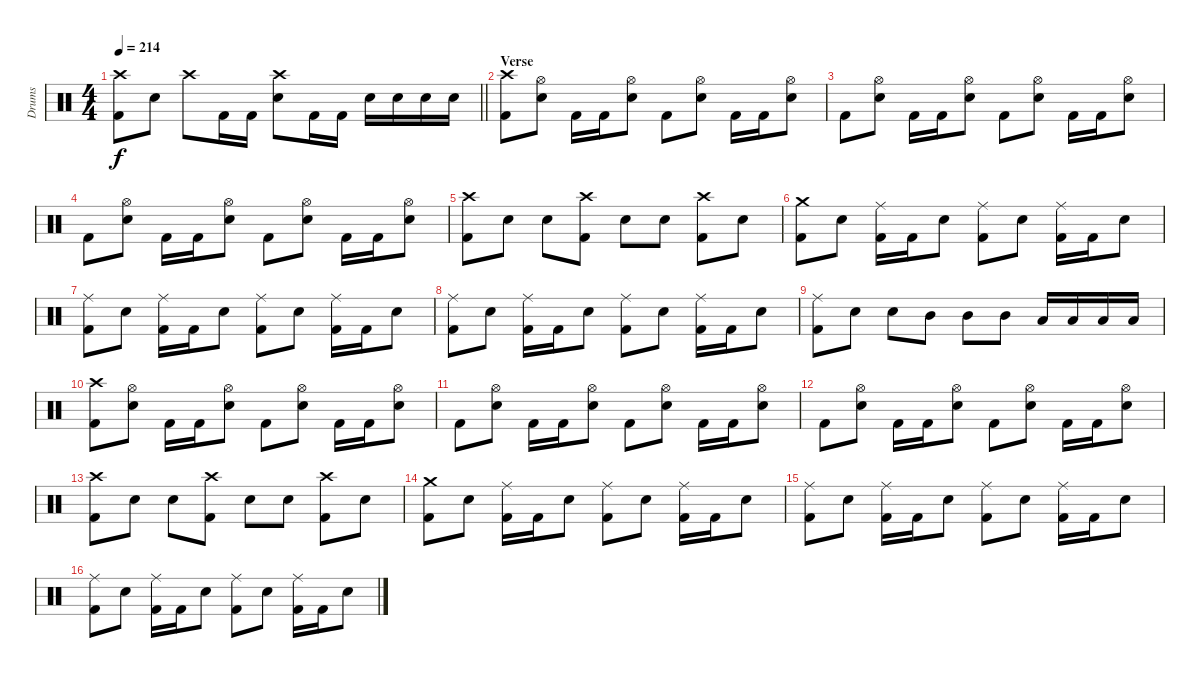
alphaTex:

\track ("Drums" "Drums") {instrument percussion}
\staff {score}
\articulation defaults
\ts (4 4)
\tempo 214
\clef neutral
\barLineRight lightlight
\ks c
("Crash high (hit)" "Kick (hit) 2").8{dy f} "Snare (hit) 2".8 "Crash high (hit)".8 "Kick (hit) 2".16 "Kick (hit) 2".16 ("Crash high (hit)" "Snare (hit) 2").8 "Kick (hit) 2".16 "Kick (hit) 2".16 "Snare (hit) 2".16 "Snare (hit) 2".16 "Snare (hit) 2".16 "Snare (hit) 2".16 |
\section ("" "Verse")
("Crash high (hit)" "Kick (hit) 2").8 ("Hi-Hat (open)" "Snare (hit) 2").8 "Kick (hit) 2".16 "Kick (hit) 2".16 ("Hi-Hat (open)" "Snare (hit) 2").8 "Kick (hit) 2".8 ("Hi-Hat (open)" "Snare (hit) 2").8 "Kick (hit) 2".16 "Kick (hit) 2".16 ("Hi-Hat (open)" "Snare (hit) 2").8 |
"Kick (hit) 2".8 ("Hi-Hat (open)" "Snare (hit) 2").8 "Kick (hit) 2".16 "Kick (hit) 2".16 ("Hi-Hat (open)" "Snare (hit) 2").8 "Kick (hit) 2".8 ("Hi-Hat (open)" "Snare (hit) 2").8 "Kick (hit) 2".16 "Kick (hit) 2".16 ("Hi-Hat (open)" "Snare (hit) 2").8 |
"Kick (hit) 2".8 ("Hi-Hat (open)" "Snare (hit) 2").8 "Kick (hit) 2".16 "Kick (hit) 2".16 ("Hi-Hat (open)" "Snare (hit) 2").8 "Kick (hit) 2".8 ("Hi-Hat (open)" "Snare (hit) 2").8 "Kick (hit) 2".16 "Kick (hit) 2".16 ("Hi-Hat (open)" "Snare (hit) 2").8 |
("Crash high (hit)" "Kick (hit) 2").8 "Snare (hit) 2".8 "Snare (hit) 2".8 ("Crash high (hit)" "Kick (hit) 2").8 "Snare (hit) 2".8 "Snare (hit) 2".8 ("Crash high (hit)" "Kick (hit) 2").8 "Snare (hit) 2".8 |
("Crash medium (hit)" "Kick (hit) 2").8 "Snare (hit) 2".8 ("Ride (middle)" "Kick (hit) 2").16 "Kick (hit) 2".16 "Snare (hit) 2".8 ("Ride (middle)" "Kick (hit) 2").8 "Snare (hit) 2".8 ("Ride (middle)" "Kick (hit) 2").16 "Kick (hit) 2".16 "Snare (hit) 2".8 |
("Ride (middle)" "Kick (hit) 2").8 "Snare (hit) 2".8 ("Ride (middle)" "Kick (hit) 2").16 "Kick (hit) 2".16 "Snare (hit) 2".8 ("Ride (middle)" "Kick (hit) 2").8 "Snare (hit) 2".8 ("Ride (middle)" "Kick (hit) 2").16 "Kick (hit) 2".16 "Snare (hit) 2".8 |
("Ride (middle)" "Kick (hit) 2").8 "Snare (hit) 2".8 ("Ride (middle)" "Kick (hit) 2").16 "Kick (hit) 2".16 "Snare (hit) 2".8 ("Ride (middle)" "Kick (hit) 2").8 "Snare (hit) 2".8 ("Ride (middle)" "Kick (hit) 2").16 "Kick (hit) 2".16 "Snare (hit) 2".8 |
("Ride (middle)" "Kick (hit) 2").8 "Snare (hit) 2".8 "Snare (hit) 2".8 "Mid Tom (hit)".8 "Mid Tom (hit)".8 "Mid Tom (hit)".8 "Low Tom (hit)".16 "Low Tom (hit)".16 "Low Tom (hit)".16 "Low Tom (hit)".16 |
("Crash high (hit)" "Kick (hit) 2").8 ("Hi-Hat (open)" "Snare (hit) 2").8 "Kick (hit) 2".16 "Kick (hit) 2".16 ("Hi-Hat (open)" "Snare (hit) 2").8 "Kick (hit) 2".8 ("Hi-Hat (open)" "Snare (hit) 2").8 "Kick (hit) 2".16 "Kick (hit) 2".16 ("Hi-Hat (open)" "Snare (hit) 2").8 |
"Kick (hit) 2".8 ("Hi-Hat (open)" "Snare (hit) 2").8 "Kick (hit) 2".16 "Kick (hit) 2".16 ("Hi-Hat (open)" "Snare (hit) 2").8 "Kick (hit) 2".8 ("Hi-Hat (open)" "Snare (hit) 2").8 "Kick (hit) 2".16 "Kick (hit) 2".16 ("Hi-Hat (open)" "Snare (hit) 2").8 |
"Kick (hit) 2".8 ("Hi-Hat (open)" "Snare (hit) 2").8 "Kick (hit) 2".16 "Kick (hit) 2".16 ("Hi-Hat (open)" "Snare (hit) 2").8 "Kick (hit) 2".8 ("Hi-Hat (open)" "Snare (hit) 2").8 "Kick (hit) 2".16 "Kick (hit) 2".16 ("Hi-Hat (open)" "Snare (hit) 2").8 |
("Crash high (hit)" "Kick (hit) 2").8 "Snare (hit) 2".8 "Snare (hit) 2".8 ("Crash high (hit)" "Kick (hit) 2").8 "Snare (hit) 2".8 "Snare (hit) 2".8 ("Crash high (hit)" "Kick (hit) 2").8 "Snare (hit) 2".8 |
("Crash medium (hit)" "Kick (hit) 2").8 "Snare (hit) 2".8 ("Ride (middle)" "Kick (hit) 2").16 "Kick (hit) 2".16 "Snare (hit) 2".8 ("Ride (middle)" "Kick (hit) 2").8 "Snare (hit) 2".8 ("Ride (middle)" "Kick (hit) 2").16 "Kick (hit) 2".16 "Snare (hit) 2".8 |
("Ride (middle)" "Kick (hit) 2").8 "Snare (hit) 2".8 ("Ride (middle)" "Kick (hit) 2").16 "Kick (hit) 2".16 "Snare (hit) 2".8 ("Ride (middle)" "Kick (hit) 2").8 "Snare (hit) 2".8 ("Ride (middle)" "Kick (hit) 2").16 "Kick (hit) 2".16 "Snare (hit) 2".8 |
("Ride (middle)" "Kick (hit) 2").8 "Snare (hit) 2".8 ("Ride (middle)" "Kick (hit) 2").16 "Kick (hit) 2".16 "Snare (hit) 2".8 ("Ride (middle)" "Kick (hit) 2").8 "Snare (hit) 2".8 ("Ride (middle)" "Kick (hit) 2").16 "Kick (hit) 2".16 "Snare (hit) 2".8
